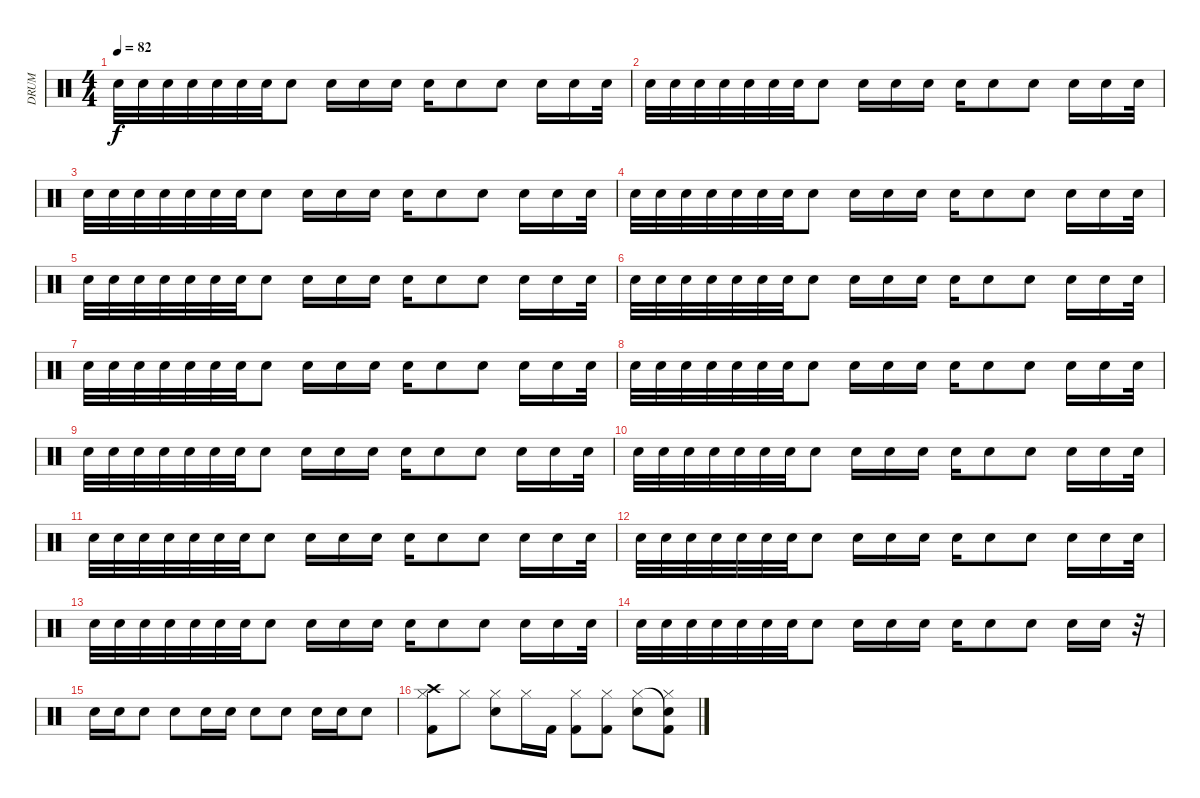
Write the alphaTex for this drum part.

\track ("DRUM" "DRUM") {instrument percussion}
\staff {score}
\articulation defaults
\ts (4 4)
\tempo 82
\clef neutral
\ks c "Electric Snare (hit)".32{dy f} "Electric Snare (hit)".32 "Electric Snare (hit)".32 "Electric Snare (hit)".32 "Electric Snare (hit)".32 "Electric Snare (hit)".32 "Electric Snare (hit)".32 "Electric Snare (hit)".8 "Electric Snare (hit)".16 "Electric Snare (hit)".16 "Electric Snare (hit)".16 "Electric Snare (hit)".16 "Electric Snare (hit)".8 "Electric Snare (hit)".8 "Electric Snare (hit)".16 "Electric Snare (hit)".16 "Electric Snare (hit)".32
|
"Electric Snare (hit)".32 "Electric Snare (hit)".32 "Electric Snare (hit)".32 "Electric Snare (hit)".32 "Electric Snare (hit)".32 "Electric Snare (hit)".32 "Electric Snare (hit)".32 "Electric Snare (hit)".8 "Electric Snare (hit)".16 "Electric Snare (hit)".16 "Electric Snare (hit)".16 "Electric Snare (hit)".16 "Electric Snare (hit)".8 "Electric Snare (hit)".8 "Electric Snare (hit)".16 "Electric Snare (hit)".16 "Electric Snare (hit)".32 |
"Electric Snare (hit)".32 "Electric Snare (hit)".32 "Electric Snare (hit)".32 "Electric Snare (hit)".32 "Electric Snare (hit)".32 "Electric Snare (hit)".32 "Electric Snare (hit)".32 "Electric Snare (hit)".8 "Electric Snare (hit)".16 "Electric Snare (hit)".16 "Electric Snare (hit)".16 "Electric Snare (hit)".16 "Electric Snare (hit)".8 "Electric Snare (hit)".8 "Electric Snare (hit)".16 "Electric Snare (hit)".16 "Electric Snare (hit)".32 |
"Electric Snare (hit)".32 "Electric Snare (hit)".32 "Electric Snare (hit)".32 "Electric Snare (hit)".32 "Electric Snare (hit)".32 "Electric Snare (hit)".32 "Electric Snare (hit)".32 "Electric Snare (hit)".8 "Electric Snare (hit)".16 "Electric Snare (hit)".16 "Electric Snare (hit)".16 "Electric Snare (hit)".16 "Electric Snare (hit)".8 "Electric Snare (hit)".8 "Electric Snare (hit)".16 "Electric Snare (hit)".16 "Electric Snare (hit)".32 |
"Electric Snare (hit)".32 "Electric Snare (hit)".32 "Electric Snare (hit)".32 "Electric Snare (hit)".32 "Electric Snare (hit)".32 "Electric Snare (hit)".32 "Electric Snare (hit)".32 "Electric Snare (hit)".8 "Electric Snare (hit)".16 "Electric Snare (hit)".16 "Electric Snare (hit)".16 "Electric Snare (hit)".16 "Electric Snare (hit)".8 "Electric Snare (hit)".8 "Electric Snare (hit)".16 "Electric Snare (hit)".16 "Electric Snare (hit)".32 |
"Electric Snare (hit)".32 "Electric Snare (hit)".32 "Electric Snare (hit)".32 "Electric Snare (hit)".32 "Electric Snare (hit)".32 "Electric Snare (hit)".32 "Electric Snare (hit)".32 "Electric Snare (hit)".8 "Electric Snare (hit)".16 "Electric Snare (hit)".16 "Electric Snare (hit)".16 "Electric Snare (hit)".16 "Electric Snare (hit)".8 "Electric Snare (hit)".8 "Electric Snare (hit)".16 "Electric Snare (hit)".16 "Electric Snare (hit)".32 |
"Electric Snare (hit)".32 "Electric Snare (hit)".32 "Electric Snare (hit)".32 "Electric Snare (hit)".32 "Electric Snare (hit)".32 "Electric Snare (hit)".32 "Electric Snare (hit)".32 "Electric Snare (hit)".8 "Electric Snare (hit)".16 "Electric Snare (hit)".16 "Electric Snare (hit)".16 "Electric Snare (hit)".16 "Electric Snare (hit)".8 "Electric Snare (hit)".8 "Electric Snare (hit)".16 "Electric Snare (hit)".16 "Electric Snare (hit)".32 |
"Electric Snare (hit)".32 "Electric Snare (hit)".32 "Electric Snare (hit)".32 "Electric Snare (hit)".32 "Electric Snare (hit)".32 "Electric Snare (hit)".32 "Electric Snare (hit)".32 "Electric Snare (hit)".8 "Electric Snare (hit)".16 "Electric Snare (hit)".16 "Electric Snare (hit)".16 "Electric Snare (hit)".16 "Electric Snare (hit)".8 "Electric Snare (hit)".8 "Electric Snare (hit)".16 "Electric Snare (hit)".16 "Electric Snare (hit)".32 |
"Electric Snare (hit)".32 "Electric Snare (hit)".32 "Electric Snare (hit)".32 "Electric Snare (hit)".32 "Electric Snare (hit)".32 "Electric Snare (hit)".32 "Electric Snare (hit)".32 "Electric Snare (hit)".8 "Electric Snare (hit)".16 "Electric Snare (hit)".16 "Electric Snare (hit)".16 "Electric Snare (hit)".16 "Electric Snare (hit)".8 "Electric Snare (hit)".8 "Electric Snare (hit)".16 "Electric Snare (hit)".16 "Electric Snare (hit)".32 |
"Electric Snare (hit)".32 "Electric Snare (hit)".32 "Electric Snare (hit)".32 "Electric Snare (hit)".32 "Electric Snare (hit)".32 "Electric Snare (hit)".32 "Electric Snare (hit)".32 "Electric Snare (hit)".8 "Electric Snare (hit)".16 "Electric Snare (hit)".16 "Electric Snare (hit)".16 "Electric Snare (hit)".16 "Electric Snare (hit)".8 "Electric Snare (hit)".8 "Electric Snare (hit)".16 "Electric Snare (hit)".16 "Electric Snare (hit)".32 |
"Electric Snare (hit)".32 "Electric Snare (hit)".32 "Electric Snare (hit)".32 "Electric Snare (hit)".32 "Electric Snare (hit)".32 "Electric Snare (hit)".32 "Electric Snare (hit)".32 "Electric Snare (hit)".8 "Electric Snare (hit)".16 "Electric Snare (hit)".16 "Electric Snare (hit)".16 "Electric Snare (hit)".16 "Electric Snare (hit)".8 "Electric Snare (hit)".8 "Electric Snare (hit)".16 "Electric Snare (hit)".16 "Electric Snare (hit)".32 |
"Electric Snare (hit)".32 "Electric Snare (hit)".32 "Electric Snare (hit)".32 "Electric Snare (hit)".32 "Electric Snare (hit)".32 "Electric Snare (hit)".32 "Electric Snare (hit)".32 "Electric Snare (hit)".8 "Electric Snare (hit)".16 "Electric Snare (hit)".16 "Electric Snare (hit)".16 "Electric Snare (hit)".16 "Electric Snare (hit)".8 "Electric Snare (hit)".8 "Electric Snare (hit)".16 "Electric Snare (hit)".16 "Electric Snare (hit)".32 |
"Electric Snare (hit)".32 "Electric Snare (hit)".32 "Electric Snare (hit)".32 "Electric Snare (hit)".32 "Electric Snare (hit)".32 "Electric Snare (hit)".32 "Electric Snare (hit)".32 "Electric Snare (hit)".8 "Electric Snare (hit)".16 "Electric Snare (hit)".16 "Electric Snare (hit)".16 "Electric Snare (hit)".16 "Electric Snare (hit)".8 "Electric Snare (hit)".8 "Electric Snare (hit)".16 "Electric Snare (hit)".16 "Electric Snare (hit)".32 |
"Electric Snare (hit)".32 "Electric Snare (hit)".32 "Electric Snare (hit)".32 "Electric Snare (hit)".32 "Electric Snare (hit)".32 "Electric Snare (hit)".32 "Electric Snare (hit)".32 "Electric Snare (hit)".8 "Electric Snare (hit)".16{volume 10} "Electric Snare (hit)".16 "Electric Snare (hit)".16 "Electric Snare (hit)".16 "Electric Snare (hit)".8 "Electric Snare (hit)".8 "Electric Snare (hit)".16 "Electric Snare (hit)".16 r.32 |
"Electric Snare (hit)".16 "Electric Snare (hit)".16 "Electric Snare (hit)".8 "Electric Snare (hit)".8 "Electric Snare (hit)".16 "Electric Snare (hit)".16 "Electric Snare (hit)".8 "Electric Snare (hit)".8 "Electric Snare (hit)".16 "Electric Snare (hit)".16 "Electric Snare (hit)".8 |
("Crash high (hit)" "Hi-Hat (closed)" "Kick (hit) 2").8 "Hi-Hat (closed)".8 ("Hi-Hat (closed)" "Electric Snare (hit)").8 "Hi-Hat (closed)".16 "Kick (hit) 2".16 ("Hi-Hat (closed)" "Kick (hit) 2").8 ("Hi-Hat (closed)" "Kick (hit) 2").8 ("Hi-Hat (closed)" "Electric Snare (hit)").8 ("Snare (hit)"{t} "Hi-Hat (closed)" "Kick (hit) 2").8
